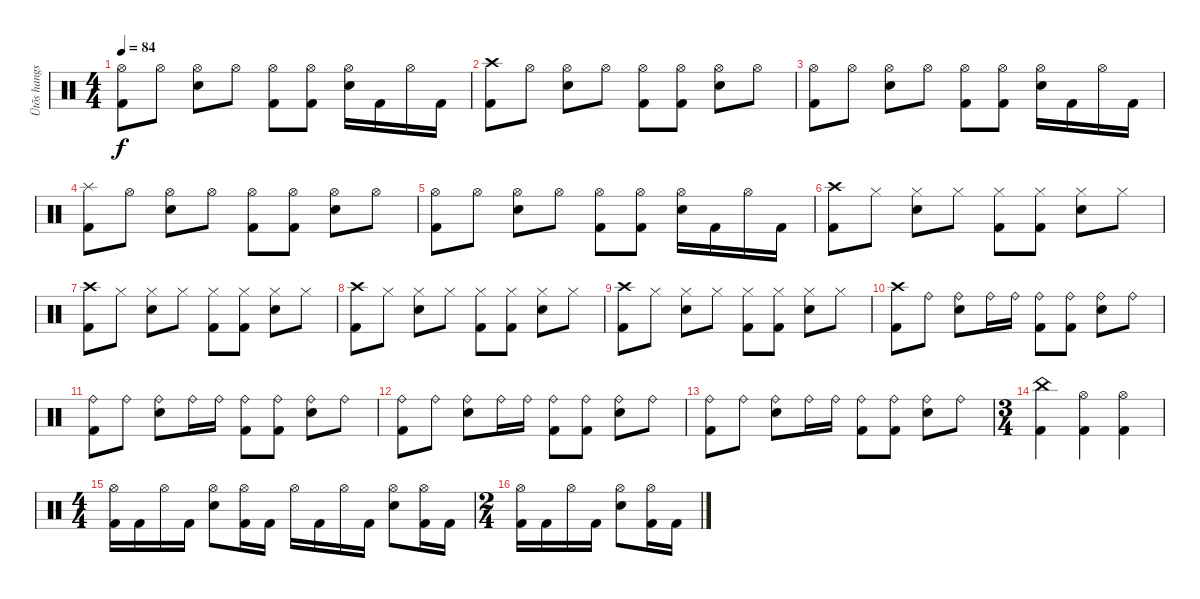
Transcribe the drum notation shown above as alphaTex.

\track ("Ütõs hangszer" "Ütõs hangs") {instrument percussion}
\staff {score}
\articulation defaults
\ts (4 4)
\tempo 84
\clef neutral
\ks c
("Hi-Hat (open)" "Kick (hit) 2").8{dy f} "Hi-Hat (open)".8 ("Hi-Hat (open)" "Snare (hit) 2").8 "Hi-Hat (open)".8 ("Hi-Hat (open)" "Kick (hit) 2").8 ("Hi-Hat (open)" "Kick (hit) 2").8 ("Hi-Hat (open)" "Snare (hit) 2").16 "Kick (hit) 2".16 "Hi-Hat (open)".16 "Kick (hit) 2".16 |
("Crash high (hit)" "Kick (hit) 2").8 "Hi-Hat (open)".8 ("Hi-Hat (open)" "Snare (hit) 2").8 "Hi-Hat (open)".8 ("Hi-Hat (open)" "Kick (hit) 2").8 ("Hi-Hat (open)" "Kick (hit) 2").8 ("Hi-Hat (open)" "Snare (hit) 2").8 "Hi-Hat (open)".8 |
("Hi-Hat (open)" "Kick (hit) 2").8 "Hi-Hat (open)".8 ("Hi-Hat (open)" "Snare (hit) 2").8 "Hi-Hat (open)".8 ("Hi-Hat (open)" "Kick (hit) 2").8 ("Hi-Hat (open)" "Kick (hit) 2").8 ("Hi-Hat (open)" "Snare (hit) 2").16 "Kick (hit) 2".16 "Hi-Hat (open)".16 "Kick (hit) 2".16 |
("Splash (hit)" "Kick (hit) 2").8 "Hi-Hat (open)".8 ("Hi-Hat (open)" "Snare (hit) 2").8 "Hi-Hat (open)".8 ("Hi-Hat (open)" "Kick (hit) 2").8 ("Hi-Hat (open)" "Kick (hit) 2").8 ("Hi-Hat (open)" "Snare (hit) 2").8 "Hi-Hat (open)".8 |
("Hi-Hat (open)" "Kick (hit) 2").8 "Hi-Hat (open)".8 ("Hi-Hat (open)" "Snare (hit) 2").8 "Hi-Hat (open)".8 ("Hi-Hat (open)" "Kick (hit) 2").8 ("Hi-Hat (open)" "Kick (hit) 2").8 ("Hi-Hat (open)" "Snare (hit) 2").16 "Kick (hit) 2".16 "Hi-Hat (open)".16 "Kick (hit) 2".16 |
("Crash high (hit)" "Kick (hit) 2").8 "Hi-Hat (closed)".8 ("Hi-Hat (closed)" "Snare (hit) 2").8 "Hi-Hat (closed)".8 ("Hi-Hat (closed)" "Kick (hit) 2").8 ("Hi-Hat (closed)" "Kick (hit) 2").8 ("Hi-Hat (closed)" "Snare (hit) 2").8 "Hi-Hat (closed)".8 |
("Crash high (hit)" "Kick (hit) 2").8 "Hi-Hat (closed)".8 ("Hi-Hat (closed)" "Snare (hit) 2").8 "Hi-Hat (closed)".8 ("Hi-Hat (closed)" "Kick (hit) 2").8 ("Hi-Hat (closed)" "Kick (hit) 2").8 ("Hi-Hat (closed)" "Snare (hit) 2").8 "Hi-Hat (closed)".8 |
("Crash high (hit)" "Kick (hit) 2").8 "Hi-Hat (closed)".8 ("Hi-Hat (closed)" "Snare (hit) 2").8 "Hi-Hat (closed)".8 ("Hi-Hat (closed)" "Kick (hit) 2").8 ("Hi-Hat (closed)" "Kick (hit) 2").8 ("Hi-Hat (closed)" "Snare (hit) 2").8 "Hi-Hat (closed)".8 |
("Crash high (hit)" "Kick (hit) 2").8 "Hi-Hat (closed)".8 ("Hi-Hat (closed)" "Snare (hit) 2").8 "Hi-Hat (closed)".8 ("Hi-Hat (closed)" "Kick (hit) 2").8 ("Hi-Hat (closed)" "Kick (hit) 2").8 ("Hi-Hat (closed)" "Snare (hit) 2").8 "Hi-Hat (closed)".8 |
("Crash high (hit)" "Kick (hit) 2").8 "Ride (bell)".8 ("Ride (bell)" "Snare (hit) 2").8 "Ride (bell)".16 "Ride (bell)".16 ("Ride (bell)" "Kick (hit) 2").8 ("Ride (bell)" "Kick (hit) 2").8 ("Ride (bell)" "Snare (hit) 2").8 "Ride (bell)".8 |
("Ride (bell)" "Kick (hit) 2").8 "Ride (bell)".8 ("Ride (bell)" "Snare (hit) 2").8 "Ride (bell)".16 "Ride (bell)".16 ("Ride (bell)" "Kick (hit) 2").8 ("Ride (bell)" "Kick (hit) 2").8 ("Ride (bell)" "Snare (hit) 2").8 "Ride (bell)".8 |
("Ride (bell)" "Kick (hit) 2").8 "Ride (bell)".8 ("Ride (bell)" "Snare (hit) 2").8 "Ride (bell)".16 "Ride (bell)".16 ("Ride (bell)" "Kick (hit) 2").8 ("Ride (bell)" "Kick (hit) 2").8 ("Ride (bell)" "Snare (hit) 2").8 "Ride (bell)".8 |
("Ride (bell)" "Kick (hit) 2").8 "Ride (bell)".8 ("Ride (bell)" "Snare (hit) 2").8 "Ride (bell)".16 "Ride (bell)".16 ("Ride (bell)" "Kick (hit) 2").8 ("Ride (bell)" "Kick (hit) 2").8 ("Ride (bell)" "Snare (hit) 2").8 "Ride (bell)".8 |
\ts (3 4)
("China (hit)" "Kick (hit) 2").4 ("Hi-Hat (open)" "Kick (hit) 2").4 ("Hi-Hat (open)" "Kick (hit) 2").4 |
\ts (4 4)
("Hi-Hat (open)" "Kick (hit) 2").16 "Kick (hit) 2".16 "Hi-Hat (open)".16 "Kick (hit) 2".16 ("Hi-Hat (open)" "Snare (hit) 2").8 ("Hi-Hat (open)" "Kick (hit) 2").16 "Kick (hit) 2".16 "Hi-Hat (open)".16 "Kick (hit) 2".16 "Hi-Hat (open)".16 "Kick (hit) 2".16 ("Hi-Hat (open)" "Snare (hit) 2").8 ("Hi-Hat (open)" "Kick (hit) 2").16 "Kick (hit) 2".16 |
\ts (2 4)
("Hi-Hat (open)" "Kick (hit) 2").16 "Kick (hit) 2".16 "Hi-Hat (open)".16 "Kick (hit) 2".16 ("Hi-Hat (open)" "Snare (hit) 2").8 ("Hi-Hat (open)" "Kick (hit) 2").16 "Kick (hit) 2".16
